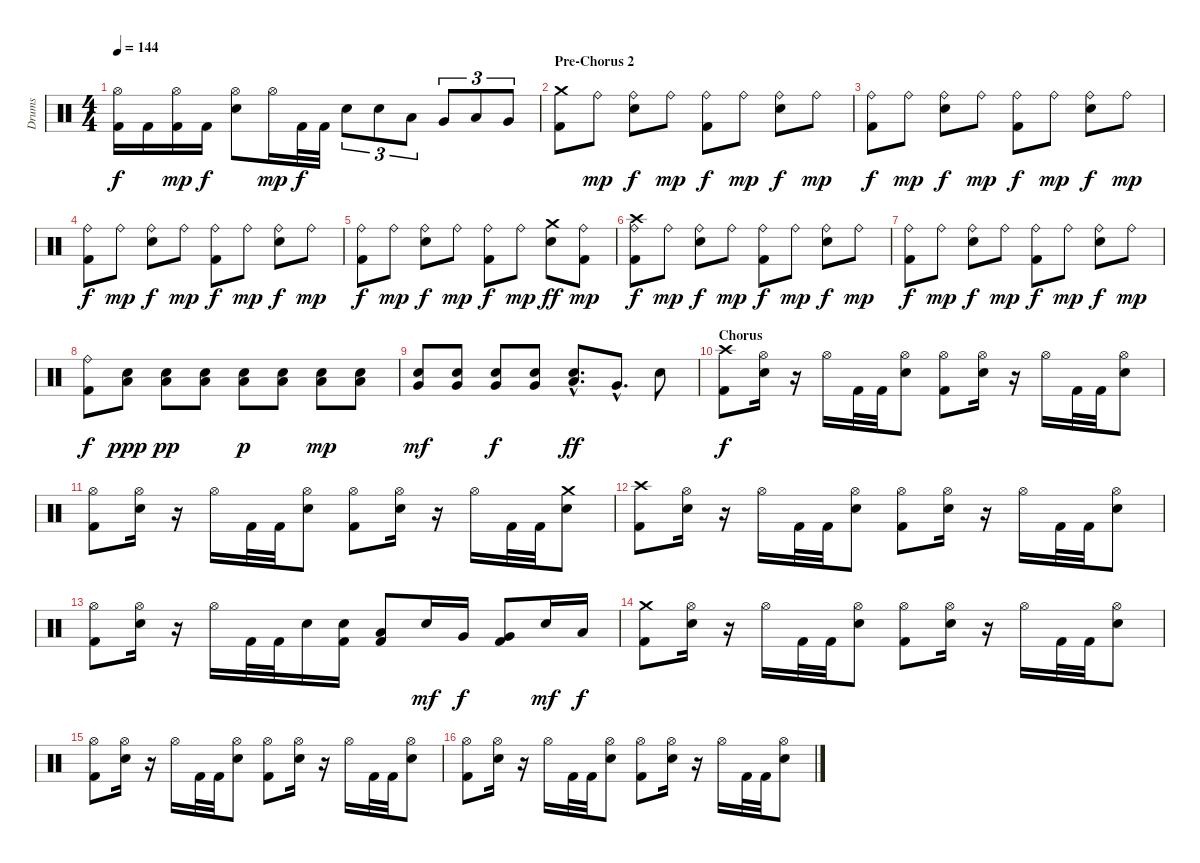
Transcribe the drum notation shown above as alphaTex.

\track ("Drums" "Drums") {instrument percussion}
\staff {score}
\articulation defaults
\ts (4 4)
\tempo 144
\clef neutral
\ks c
("Kick (hit) 2" "Hi-Hat (open)").16{dy f} "Kick (hit) 2".16 ("Kick (hit) 2" "Hi-Hat (open)").16{dy mp} "Kick (hit) 2".16{dy f} ("Electric Snare (hit)" "Hi-Hat (open)").8 "Hi-Hat (open)".16{dy mp} "Kick (hit) 2".32{dy f} "Kick (hit) 2".32 "Electric Snare (hit)".8{tu (3 2)} "Electric Snare (hit)".8{tu (3 2)} "Low Floor Tom (hit)".8{tu (3 2)} "Very Low Tom (hit)".8{tu (3 2)} "Low Tom (hit)".8{tu (3 2)} "Very Low Tom (hit)".8{tu (3 2)} |
\section ("" "Pre-Chorus 2")
("Kick (hit) 2" "Crash medium (hit)").8 "Ride (bell)".8{dy mp} ("Electric Snare (hit)" "Ride (bell)").8{dy f} "Ride (bell)".8{dy mp} ("Kick (hit) 2" "Ride (bell)").8{dy f} "Ride (bell)".8{dy mp} ("Electric Snare (hit)" "Ride (bell)").8{dy f} "Ride (bell)".8{dy mp} |
("Kick (hit) 2" "Ride (bell)").8{dy f} "Ride (bell)".8{dy mp} ("Electric Snare (hit)" "Ride (bell)").8{dy f} "Ride (bell)".8{dy mp} ("Kick (hit) 2" "Ride (bell)").8{dy f} "Ride (bell)".8{dy mp} ("Electric Snare (hit)" "Ride (bell)").8{dy f} "Ride (bell)".8{dy mp} |
("Kick (hit) 2" "Ride (bell)").8{dy f} "Ride (bell)".8{dy mp} ("Electric Snare (hit)" "Ride (bell)").8{dy f} "Ride (bell)".8{dy mp} ("Kick (hit) 2" "Ride (bell)").8{dy f} "Ride (bell)".8{dy mp} ("Electric Snare (hit)" "Ride (bell)").8{dy f} "Ride (bell)".8{dy mp} |
("Kick (hit) 2" "Ride (bell)").8{dy f} "Ride (bell)".8{dy mp} ("Electric Snare (hit)" "Ride (bell)").8{dy f} "Ride (bell)".8{dy mp} ("Kick (hit) 2" "Ride (bell)").8{dy f} "Ride (bell)".8{dy mp} ("Electric Snare (hit)" "Crash medium (hit)").8{dy ff} ("Kick (hit) 2" "Ride (bell)").8{dy mp} |
("Kick (hit) 2" "Ride (bell)" "Crash high (hit)").8{dy f} "Ride (bell)".8{dy mp} ("Electric Snare (hit)" "Ride (bell)").8{dy f} "Ride (bell)".8{dy mp} ("Kick (hit) 2" "Ride (bell)").8{dy f} "Ride (bell)".8{dy mp} ("Electric Snare (hit)" "Ride (bell)").8{dy f} "Ride (bell)".8{dy mp} |
("Kick (hit) 2" "Ride (bell)").8{dy f} "Ride (bell)".8{dy mp} ("Electric Snare (hit)" "Ride (bell)").8{dy f} "Ride (bell)".8{dy mp} ("Kick (hit) 2" "Ride (bell)").8{dy f} "Ride (bell)".8{dy mp} ("Electric Snare (hit)" "Ride (bell)").8{dy f} "Ride (bell)".8{dy mp} |
("Kick (hit) 2" "Ride (bell)").8{dy f} ("Low Floor Tom (hit)" "Electric Snare (hit)").8{dy ppp} ("Low Floor Tom (hit)" "Electric Snare (hit)").8{dy pp} ("Low Floor Tom (hit)" "Electric Snare (hit)").8 ("Low Floor Tom (hit)" "Electric Snare (hit)").8{dy p} ("Low Floor Tom (hit)" "Electric Snare (hit)").8 ("Low Floor Tom (hit)" "Electric Snare (hit)").8{dy mp} ("Low Floor Tom (hit)" "Electric Snare (hit)").8 |
("Very Low Tom (hit)" "Electric Snare (hit)").8{dy mf} ("Very Low Tom (hit)" "Electric Snare (hit)").8 ("Very Low Tom (hit)" "Electric Snare (hit)").8{dy f} ("Very Low Tom (hit)" "Electric Snare (hit)").8 ("Low Tom (hit)"{hac} "Electric Snare (hit)"{hac}).8{d dy ff} "Very Low Tom (hit)"{hac}.8{d} "Electric Snare (hit)".8 |
\section ("" "Chorus")
("Kick (hit) 2" "Crash high (hit)").8{dy f} ("Electric Snare (hit)" "Hi-Hat (open)").16 r.16 "Hi-Hat (open)".16 "Kick (hit) 2".32 "Kick (hit) 2".32 ("Electric Snare (hit)" "Hi-Hat (open)").8 ("Kick (hit) 2" "Hi-Hat (open)").8 ("Electric Snare (hit)" "Hi-Hat (open)").16 r.16 "Hi-Hat (open)".16 "Kick (hit) 2".32 "Kick (hit) 2".32 ("Electric Snare (hit)" "Hi-Hat (open)").8 |
("Kick (hit) 2" "Hi-Hat (open)").8 ("Electric Snare (hit)" "Hi-Hat (open)").16 r.16 "Hi-Hat (open)".16 "Kick (hit) 2".32 "Kick (hit) 2".32 ("Electric Snare (hit)" "Hi-Hat (open)").8 ("Kick (hit) 2" "Hi-Hat (open)").8 ("Electric Snare (hit)" "Hi-Hat (open)").16 r.16 "Hi-Hat (open)".16 "Kick (hit) 2".32 "Kick (hit) 2".32 ("Electric Snare (hit)" "Crash medium (hit)").8 |
("Kick (hit) 2" "Crash high (hit)").8 ("Electric Snare (hit)" "Hi-Hat (open)").16 r.16 "Hi-Hat (open)".16 "Kick (hit) 2".32 "Kick (hit) 2".32 ("Electric Snare (hit)" "Hi-Hat (open)").8 ("Kick (hit) 2" "Hi-Hat (open)").8 ("Electric Snare (hit)" "Hi-Hat (open)").16 r.16 "Hi-Hat (open)".16 "Kick (hit) 2".32 "Kick (hit) 2".32 ("Electric Snare (hit)" "Hi-Hat (open)").8 |
("Kick (hit) 2" "Hi-Hat (open)").8 ("Electric Snare (hit)" "Hi-Hat (open)").16 r.16 "Hi-Hat (open)".16 "Kick (hit) 2".32 "Kick (hit) 2".32 "Electric Snare (hit)".16 ("Kick (hit) 2" "Electric Snare (hit)").16 ("Kick (hit) 2" "Low Tom (hit)").8 "Electric Snare (hit)".16{dy mf} "Very Low Tom (hit)".16{dy f} ("Kick (hit) 2" "Very Low Tom (hit)").8 "Electric Snare (hit)".16{dy mf} "Low Tom (hit)".16{dy f} |
("Kick (hit) 2" "Crash medium (hit)").8 ("Electric Snare (hit)" "Hi-Hat (open)").16 r.16 "Hi-Hat (open)".16 "Kick (hit) 2".32 "Kick (hit) 2".32 ("Electric Snare (hit)" "Hi-Hat (open)").8 ("Kick (hit) 2" "Hi-Hat (open)").8 ("Electric Snare (hit)" "Hi-Hat (open)").16 r.16 "Hi-Hat (open)".16 "Kick (hit) 2".32 "Kick (hit) 2".32 ("Electric Snare (hit)" "Hi-Hat (open)").8 |
("Kick (hit) 2" "Hi-Hat (open)").8 ("Electric Snare (hit)" "Hi-Hat (open)").16 r.16 "Hi-Hat (open)".16 "Kick (hit) 2".32 "Kick (hit) 2".32 ("Electric Snare (hit)" "Hi-Hat (open)").8 ("Kick (hit) 2" "Hi-Hat (open)").8 ("Electric Snare (hit)" "Hi-Hat (open)").16 r.16 "Hi-Hat (open)".16 "Kick (hit) 2".32 "Kick (hit) 2".32 ("Electric Snare (hit)" "Hi-Hat (open)").8 |
("Kick (hit) 2" "Hi-Hat (open)").8 ("Electric Snare (hit)" "Hi-Hat (open)").16 r.16 "Hi-Hat (open)".16 "Kick (hit) 2".32 "Kick (hit) 2".32 ("Electric Snare (hit)" "Hi-Hat (open)").8 ("Kick (hit) 2" "Hi-Hat (open)").8 ("Electric Snare (hit)" "Hi-Hat (open)").16 r.16 "Hi-Hat (open)".16 "Kick (hit) 2".32 "Kick (hit) 2".32 ("Electric Snare (hit)" "Hi-Hat (open)").8
